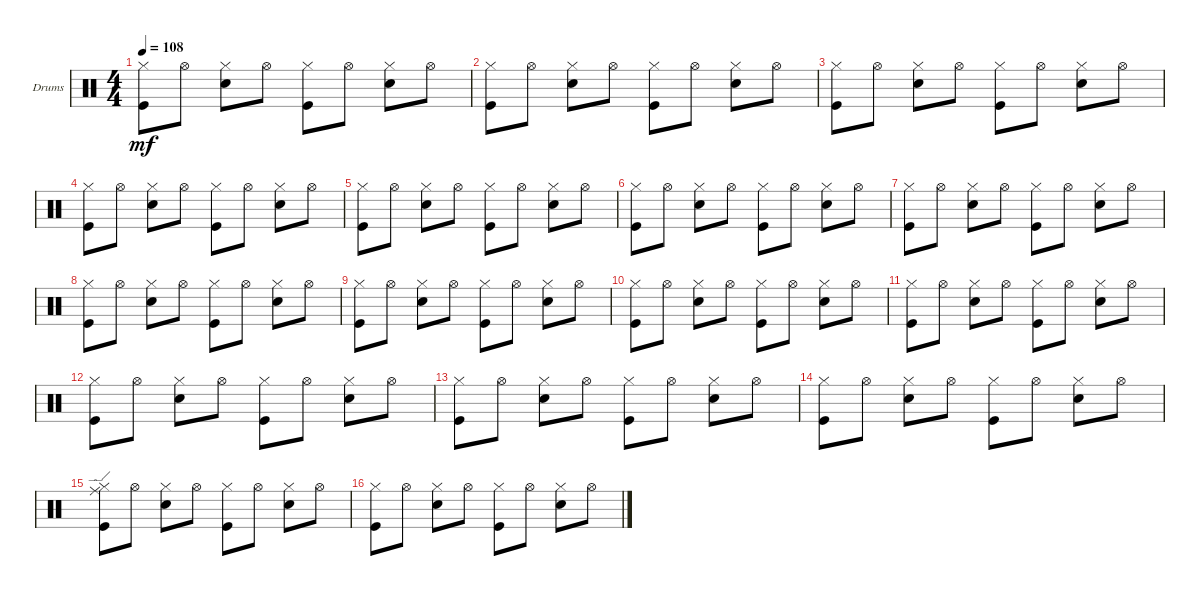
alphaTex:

\defaultSystemsLayout 4
\bracketExtendMode groupsimilarinstruments
\firstSystemTrackNameOrientation horizontal
\otherSystemsTrackNameOrientation horizontal
\track ("Drumkit" "Drums") {instrument percussion}
\staff {score}
\articulation defaults
\ts (4 4)
\tempo 108
\clef neutral
\ks c
("Hi-Hat (closed)" "Kick (hit)").8{dy mf} "Hi-Hat (open)".8 ("Hi-Hat (closed)" "Snare (hit) 2").8 "Hi-Hat (open)".8 ("Hi-Hat (closed)" "Kick (hit)").8 "Hi-Hat (open)".8 ("Hi-Hat (closed)" "Snare (hit) 2").8 "Hi-Hat (open)".8 |
("Hi-Hat (closed)" "Kick (hit)").8 "Hi-Hat (open)".8 ("Hi-Hat (closed)" "Snare (hit) 2").8 "Hi-Hat (open)".8 ("Hi-Hat (closed)" "Kick (hit)").8 "Hi-Hat (open)".8 ("Hi-Hat (closed)" "Snare (hit) 2").8 "Hi-Hat (open)".8 |
("Hi-Hat (closed)" "Kick (hit)").8 "Hi-Hat (open)".8 ("Hi-Hat (closed)" "Snare (hit) 2").8 "Hi-Hat (open)".8 ("Hi-Hat (closed)" "Kick (hit)").8 "Hi-Hat (open)".8 ("Hi-Hat (closed)" "Snare (hit) 2").8 "Hi-Hat (open)".8 |
("Hi-Hat (closed)" "Kick (hit)").8 "Hi-Hat (open)".8 ("Hi-Hat (closed)" "Snare (hit) 2").8 "Hi-Hat (open)".8 ("Hi-Hat (closed)" "Kick (hit)").8 "Hi-Hat (open)".8 ("Hi-Hat (closed)" "Snare (hit) 2").8 "Hi-Hat (open)".8 |
("Hi-Hat (closed)" "Kick (hit)").8 "Hi-Hat (open)".8 ("Hi-Hat (closed)" "Snare (hit) 2").8 "Hi-Hat (open)".8 ("Hi-Hat (closed)" "Kick (hit)").8 "Hi-Hat (open)".8 ("Hi-Hat (closed)" "Snare (hit) 2").8 "Hi-Hat (open)".8 |
("Hi-Hat (closed)" "Kick (hit)").8 "Hi-Hat (open)".8 ("Hi-Hat (closed)" "Snare (hit) 2").8 "Hi-Hat (open)".8 ("Hi-Hat (closed)" "Kick (hit)").8 "Hi-Hat (open)".8 ("Hi-Hat (closed)" "Snare (hit) 2").8 "Hi-Hat (open)".8 |
("Hi-Hat (closed)" "Kick (hit)").8 "Hi-Hat (open)".8 ("Hi-Hat (closed)" "Snare (hit) 2").8 "Hi-Hat (open)".8 ("Hi-Hat (closed)" "Kick (hit)").8 "Hi-Hat (open)".8 ("Hi-Hat (closed)" "Snare (hit) 2").8 "Hi-Hat (open)".8 |
("Hi-Hat (closed)" "Kick (hit)").8 "Hi-Hat (open)".8 ("Hi-Hat (closed)" "Snare (hit) 2").8 "Hi-Hat (open)".8 ("Hi-Hat (closed)" "Kick (hit)").8 "Hi-Hat (open)".8 ("Hi-Hat (closed)" "Snare (hit) 2").8 "Hi-Hat (open)".8 |
("Hi-Hat (closed)" "Kick (hit)").8 "Hi-Hat (open)".8 ("Hi-Hat (closed)" "Snare (hit) 2").8 "Hi-Hat (open)".8 ("Hi-Hat (closed)" "Kick (hit)").8 "Hi-Hat (open)".8 ("Hi-Hat (closed)" "Snare (hit) 2").8 "Hi-Hat (open)".8 |
("Hi-Hat (closed)" "Kick (hit)").8 "Hi-Hat (open)".8 ("Hi-Hat (closed)" "Snare (hit) 2").8 "Hi-Hat (open)".8 ("Hi-Hat (closed)" "Kick (hit)").8 "Hi-Hat (open)".8 ("Hi-Hat (closed)" "Snare (hit) 2").8 "Hi-Hat (open)".8 |
("Hi-Hat (closed)" "Kick (hit)").8 "Hi-Hat (open)".8 ("Hi-Hat (closed)" "Snare (hit) 2").8 "Hi-Hat (open)".8 ("Hi-Hat (closed)" "Kick (hit)").8 "Hi-Hat (open)".8 ("Hi-Hat (closed)" "Snare (hit) 2").8 "Hi-Hat (open)".8 |
("Hi-Hat (closed)" "Kick (hit)").8 "Hi-Hat (open)".8 ("Hi-Hat (closed)" "Snare (hit) 2").8 "Hi-Hat (open)".8 ("Hi-Hat (closed)" "Kick (hit)").8 "Hi-Hat (open)".8 ("Hi-Hat (closed)" "Snare (hit) 2").8 "Hi-Hat (open)".8 |
("Hi-Hat (closed)" "Kick (hit)").8 "Hi-Hat (open)".8 ("Hi-Hat (closed)" "Snare (hit) 2").8 "Hi-Hat (open)".8 ("Hi-Hat (closed)" "Kick (hit)").8 "Hi-Hat (open)".8 ("Hi-Hat (closed)" "Snare (hit) 2").8 "Hi-Hat (open)".8 |
("Hi-Hat (closed)" "Kick (hit)").8 "Hi-Hat (open)".8 ("Hi-Hat (closed)" "Snare (hit) 2").8 "Hi-Hat (open)".8 ("Hi-Hat (closed)" "Kick (hit)").8 "Hi-Hat (open)".8 ("Hi-Hat (closed)" "Snare (hit) 2").8 "Hi-Hat (open)".8 |
("Hi-Hat (closed)" "Kick (hit)" "Ride (edge)").8 "Hi-Hat (open)".8 ("Hi-Hat (closed)" "Snare (hit) 2").8 "Hi-Hat (open)".8 ("Hi-Hat (closed)" "Kick (hit)").8 "Hi-Hat (open)".8 ("Hi-Hat (closed)" "Snare (hit) 2").8 "Hi-Hat (open)".8 |
("Hi-Hat (closed)" "Kick (hit)").8 "Hi-Hat (open)".8 ("Hi-Hat (closed)" "Snare (hit) 2").8 "Hi-Hat (open)".8 ("Hi-Hat (closed)" "Kick (hit)").8 "Hi-Hat (open)".8 ("Hi-Hat (closed)" "Snare (hit) 2").8 "Hi-Hat (open)".8
